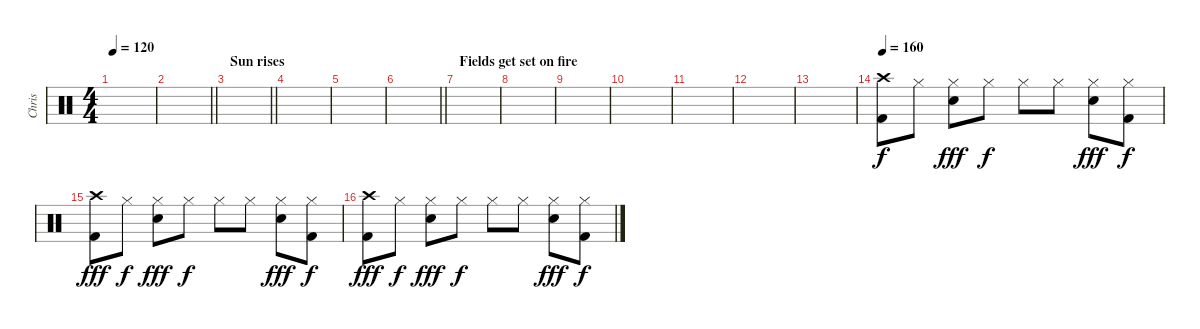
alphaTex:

\track ("Chris" "Chris") {instrument percussion}
\staff {score}
\articulation defaults
\ts (4 4)
\tempo 120
\clef neutral
\ks c
|
\barLineRight lightlight
|
\section ("" "Sun rises")
\barLineRight lightlight
|
|
|
\barLineRight lightlight
|
\section ("" "Fields get set on fire")
|
|
|
|
|
|
|
\tempo 160
("Crash high (hit)" "Kick (hit) 2").8 "Hi-Hat (closed)".8{dy f} ("Hi-Hat (closed)" "Snare (hit) 2").8{dy fff} "Hi-Hat (closed)".8{dy f} "Hi-Hat (closed)".8 "Hi-Hat (closed)".8 ("Hi-Hat (closed)" "Snare (hit) 2").8{dy fff} ("Hi-Hat (closed)" "Kick (hit) 2").8{dy f} |
("Crash high (hit)" "Kick (hit) 2").8{dy fff} "Hi-Hat (closed)".8{dy f} ("Hi-Hat (closed)" "Snare (hit) 2").8{dy fff} "Hi-Hat (closed)".8{dy f} "Hi-Hat (closed)".8 "Hi-Hat (closed)".8 ("Hi-Hat (closed)" "Snare (hit) 2").8{dy fff} ("Hi-Hat (closed)" "Kick (hit) 2").8{dy f} |
("Crash high (hit)" "Kick (hit) 2").8{dy fff} "Hi-Hat (closed)".8{dy f} ("Hi-Hat (closed)" "Snare (hit) 2").8{dy fff} "Hi-Hat (closed)".8{dy f} "Hi-Hat (closed)".8 "Hi-Hat (closed)".8 ("Hi-Hat (closed)" "Snare (hit) 2").8{dy fff} ("Hi-Hat (closed)" "Kick (hit) 2").8{dy f}
